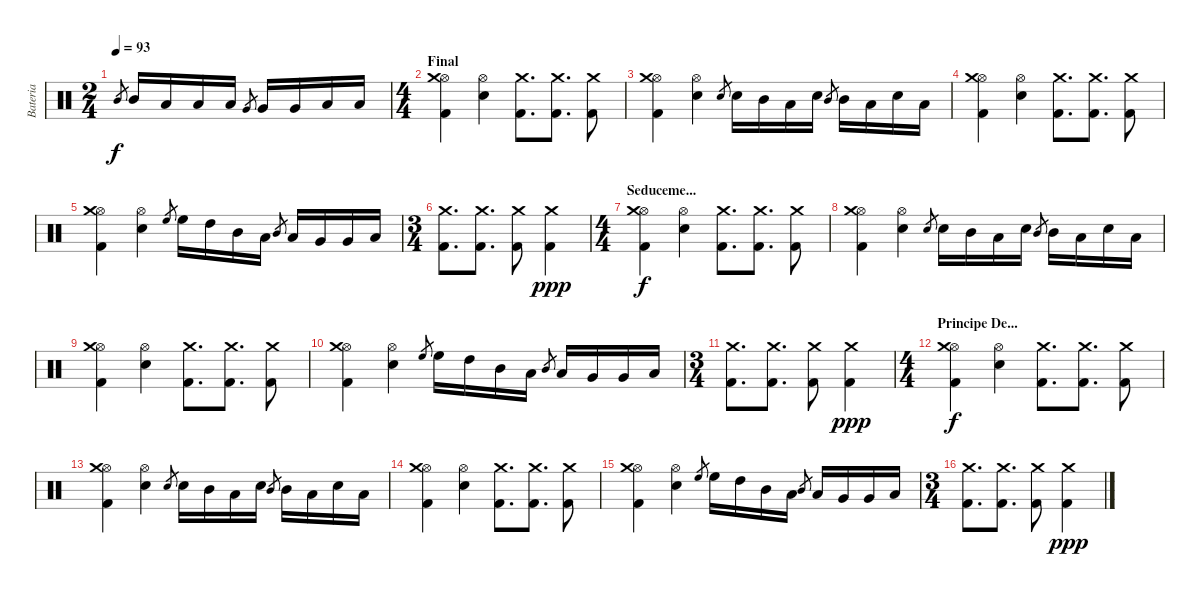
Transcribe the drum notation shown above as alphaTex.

\track ("Bateria" "Bateria") {instrument percussion}
\staff {score}
\articulation defaults
\ts (2 4)
\tempo 93
\clef neutral
\ks c "Mid Tom (hit)".8{gr dy f} "Mid Tom (hit)".16 "Low Tom (hit)".16 "Low Tom (hit)".16 "Low Tom (hit)".16 "Very Low Tom (hit)".8{gr} "Very Low Tom (hit)".16 "Very Low Tom (hit)".16 "Low Floor Tom (hit)".16 "Low Floor Tom (hit)".16
|
\ts (4 4)
\section ("" "Final")
("Kick (hit) 2" "Hi-Hat (open)" "Crash medium (hit)").4 ("Hi-Hat (open)" "Snare (hit) 2").4 ("Kick (hit) 2" "Crash medium (hit)").8{d} ("Kick (hit) 2" "Crash medium (hit)").8{d} ("Kick (hit) 2" "Crash medium (hit)").8 |
("Kick (hit) 2" "Hi-Hat (open)" "Crash medium (hit)").4 ("Hi-Hat (open)" "Snare (hit) 2").4 "Snare (hit) 2".8{gr} "Snare (hit) 2".16 "Mid Tom (hit)".16 "Low Tom (hit)".16 "Snare (hit) 2".16 "Mid Tom (hit)".8{gr} "Mid Tom (hit)".16 "Low Tom (hit)".16 "Snare (hit) 2".16 "Low Tom (hit)".16 |
("Kick (hit) 2" "Hi-Hat (open)" "Crash medium (hit)").4 ("Hi-Hat (open)" "Snare (hit) 2").4 ("Kick (hit) 2" "Crash medium (hit)").8{d} ("Kick (hit) 2" "Crash medium (hit)").8{d} ("Kick (hit) 2" "Crash medium (hit)").8 |
("Kick (hit) 2" "Hi-Hat (open)" "Crash medium (hit)").4 ("Hi-Hat (open)" "Snare (hit) 2").4 "High Floor Tom (hit)".8{gr} "High Floor Tom (hit)".16 "High Tom (hit)".16 "Mid Tom (hit)".16 "Low Tom (hit)".16 "Mid Tom (hit)".8{gr} "Low Tom (hit)".16 "Very Low Tom (hit)".16 "Very Low Tom (hit)".16 "Low Floor Tom (hit)".16 |
\ts (3 4)
("Kick (hit) 2" "Crash medium (hit)").8{d} ("Kick (hit) 2" "Crash medium (hit)").8{d} ("Kick (hit) 2" "Crash medium (hit)").8 ("Kick (hit) 2" "Crash medium (hit)").4{dy ppp} |
\ts (4 4)
\section ("" "Seduceme...")
("Kick (hit) 2" "Hi-Hat (open)" "Crash medium (hit)").4{dy f} ("Hi-Hat (open)" "Snare (hit) 2").4 ("Kick (hit) 2" "Crash medium (hit)").8{d} ("Kick (hit) 2" "Crash medium (hit)").8{d} ("Kick (hit) 2" "Crash medium (hit)").8 |
("Kick (hit) 2" "Hi-Hat (open)" "Crash medium (hit)").4 ("Hi-Hat (open)" "Snare (hit) 2").4 "Snare (hit) 2".8{gr} "Snare (hit) 2".16 "Mid Tom (hit)".16 "Low Tom (hit)".16 "Snare (hit) 2".16 "Mid Tom (hit)".8{gr} "Mid Tom (hit)".16 "Low Tom (hit)".16 "Snare (hit) 2".16 "Low Tom (hit)".16 |
("Kick (hit) 2" "Hi-Hat (open)" "Crash medium (hit)").4 ("Hi-Hat (open)" "Snare (hit) 2").4 ("Kick (hit) 2" "Crash medium (hit)").8{d} ("Kick (hit) 2" "Crash medium (hit)").8{d} ("Kick (hit) 2" "Crash medium (hit)").8 |
("Kick (hit) 2" "Hi-Hat (open)" "Crash medium (hit)").4 ("Hi-Hat (open)" "Snare (hit) 2").4 "High Floor Tom (hit)".8{gr} "High Floor Tom (hit)".16 "High Tom (hit)".16 "Mid Tom (hit)".16 "Low Tom (hit)".16 "Mid Tom (hit)".8{gr} "Low Tom (hit)".16 "Very Low Tom (hit)".16 "Very Low Tom (hit)".16 "Low Floor Tom (hit)".16 |
\ts (3 4)
("Kick (hit) 2" "Crash medium (hit)").8{d} ("Kick (hit) 2" "Crash medium (hit)").8{d} ("Kick (hit) 2" "Crash medium (hit)").8 ("Kick (hit) 2" "Crash medium (hit)").4{dy ppp} |
\ts (4 4)
\section ("" "Principe De...")
("Kick (hit) 2" "Hi-Hat (open)" "Crash medium (hit)").4{dy f} ("Hi-Hat (open)" "Snare (hit) 2").4 ("Kick (hit) 2" "Crash medium (hit)").8{d} ("Kick (hit) 2" "Crash medium (hit)").8{d} ("Kick (hit) 2" "Crash medium (hit)").8 |
("Kick (hit) 2" "Hi-Hat (open)" "Crash medium (hit)").4 ("Hi-Hat (open)" "Snare (hit) 2").4 "Snare (hit) 2".8{gr} "Snare (hit) 2".16 "Mid Tom (hit)".16 "Low Tom (hit)".16 "Snare (hit) 2".16 "Mid Tom (hit)".8{gr} "Mid Tom (hit)".16 "Low Tom (hit)".16 "Snare (hit) 2".16 "Low Tom (hit)".16 |
("Kick (hit) 2" "Hi-Hat (open)" "Crash medium (hit)").4 ("Hi-Hat (open)" "Snare (hit) 2").4 ("Kick (hit) 2" "Crash medium (hit)").8{d} ("Kick (hit) 2" "Crash medium (hit)").8{d} ("Kick (hit) 2" "Crash medium (hit)").8 |
("Kick (hit) 2" "Hi-Hat (open)" "Crash medium (hit)").4 ("Hi-Hat (open)" "Snare (hit) 2").4 "High Floor Tom (hit)".8{gr} "High Floor Tom (hit)".16 "High Tom (hit)".16 "Mid Tom (hit)".16 "Low Tom (hit)".16 "Mid Tom (hit)".8{gr} "Low Tom (hit)".16 "Very Low Tom (hit)".16 "Very Low Tom (hit)".16 "Low Floor Tom (hit)".16 |
\ts (3 4)
("Kick (hit) 2" "Crash medium (hit)").8{d} ("Kick (hit) 2" "Crash medium (hit)").8{d} ("Kick (hit) 2" "Crash medium (hit)").8 ("Kick (hit) 2" "Crash medium (hit)").4{dy ppp}
